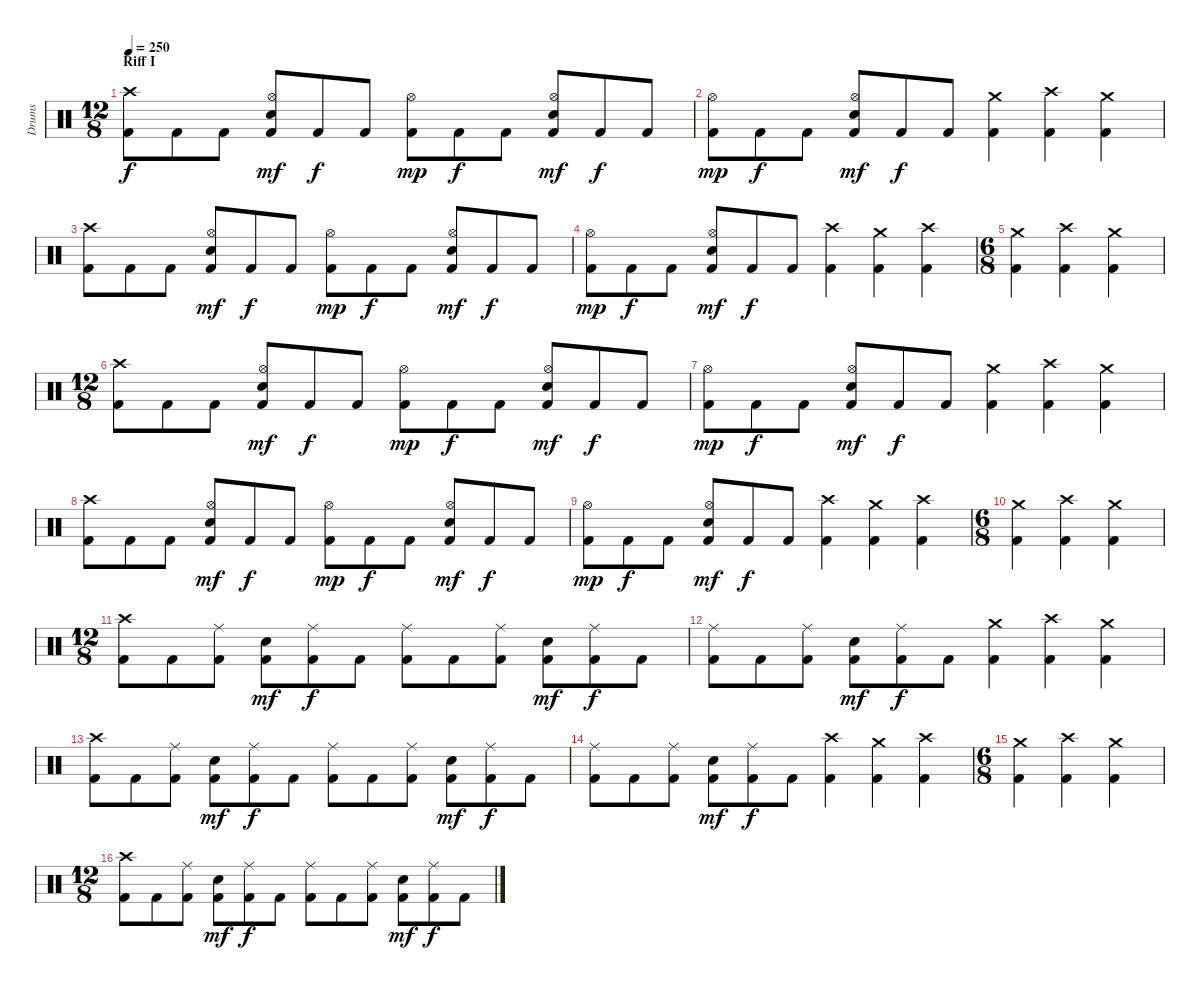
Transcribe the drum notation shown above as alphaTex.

\track ("Drums" "Drums") {instrument percussion}
\staff {score}
\articulation defaults
\ts (12 8)
\section ("" "Riff I")
\tempo 250
\clef neutral
\ks c
("Crash high (hit)" "Kick (hit) 2").8{dy f} "Kick (hit) 2".8 "Kick (hit) 2".8 ("Hi-Hat (open)" "Electric Snare (hit)" "Kick (hit) 2").8{dy mf} "Kick (hit) 2".8{dy f} "Kick (hit) 2".8 ("Hi-Hat (open)" "Kick (hit) 2").8{dy mp} "Kick (hit) 2".8{dy f} "Kick (hit) 2".8 ("Hi-Hat (open)" "Electric Snare (hit)" "Kick (hit) 2").8{dy mf} "Kick (hit) 2".8{dy f} "Kick (hit) 2".8 |
("Hi-Hat (open)" "Kick (hit) 2").8{dy mp} "Kick (hit) 2".8{dy f} "Kick (hit) 2".8 ("Hi-Hat (open)" "Electric Snare (hit)" "Kick (hit) 2").8{dy mf} "Kick (hit) 2".8{dy f} "Kick (hit) 2".8 ("Crash medium (hit)" "Kick (hit) 2").4 ("Crash high (hit)" "Kick (hit) 2").4 ("Crash medium (hit)" "Kick (hit) 2").4 |
("Crash high (hit)" "Kick (hit) 2").8 "Kick (hit) 2".8 "Kick (hit) 2".8 ("Hi-Hat (open)" "Electric Snare (hit)" "Kick (hit) 2").8{dy mf} "Kick (hit) 2".8{dy f} "Kick (hit) 2".8 ("Hi-Hat (open)" "Kick (hit) 2").8{dy mp} "Kick (hit) 2".8{dy f} "Kick (hit) 2".8 ("Hi-Hat (open)" "Electric Snare (hit)" "Kick (hit) 2").8{dy mf} "Kick (hit) 2".8{dy f} "Kick (hit) 2".8 |
("Hi-Hat (open)" "Kick (hit) 2").8{dy mp} "Kick (hit) 2".8{dy f} "Kick (hit) 2".8 ("Hi-Hat (open)" "Electric Snare (hit)" "Kick (hit) 2").8{dy mf} "Kick (hit) 2".8{dy f} "Kick (hit) 2".8 ("Crash high (hit)" "Kick (hit) 2").4 ("Crash medium (hit)" "Kick (hit) 2").4 ("Crash high (hit)" "Kick (hit) 2").4 |
\ts (6 8)
("Crash medium (hit)" "Kick (hit) 2").4 ("Crash high (hit)" "Kick (hit) 2").4 ("Crash medium (hit)" "Kick (hit) 2").4 |
\ts (12 8)
("Crash high (hit)" "Kick (hit) 2").8 "Kick (hit) 2".8 "Kick (hit) 2".8 ("Hi-Hat (open)" "Electric Snare (hit)" "Kick (hit) 2").8{dy mf} "Kick (hit) 2".8{dy f} "Kick (hit) 2".8 ("Hi-Hat (open)" "Kick (hit) 2").8{dy mp} "Kick (hit) 2".8{dy f} "Kick (hit) 2".8 ("Hi-Hat (open)" "Electric Snare (hit)" "Kick (hit) 2").8{dy mf} "Kick (hit) 2".8{dy f} "Kick (hit) 2".8 |
("Hi-Hat (open)" "Kick (hit) 2").8{dy mp} "Kick (hit) 2".8{dy f} "Kick (hit) 2".8 ("Hi-Hat (open)" "Electric Snare (hit)" "Kick (hit) 2").8{dy mf} "Kick (hit) 2".8{dy f} "Kick (hit) 2".8 ("Crash medium (hit)" "Kick (hit) 2").4 ("Crash high (hit)" "Kick (hit) 2").4 ("Crash medium (hit)" "Kick (hit) 2").4 |
("Crash high (hit)" "Kick (hit) 2").8 "Kick (hit) 2".8 "Kick (hit) 2".8 ("Hi-Hat (open)" "Electric Snare (hit)" "Kick (hit) 2").8{dy mf} "Kick (hit) 2".8{dy f} "Kick (hit) 2".8 ("Hi-Hat (open)" "Kick (hit) 2").8{dy mp} "Kick (hit) 2".8{dy f} "Kick (hit) 2".8 ("Hi-Hat (open)" "Electric Snare (hit)" "Kick (hit) 2").8{dy mf} "Kick (hit) 2".8{dy f} "Kick (hit) 2".8 |
("Hi-Hat (open)" "Kick (hit) 2").8{dy mp} "Kick (hit) 2".8{dy f} "Kick (hit) 2".8 ("Hi-Hat (open)" "Electric Snare (hit)" "Kick (hit) 2").8{dy mf} "Kick (hit) 2".8{dy f} "Kick (hit) 2".8 ("Crash high (hit)" "Kick (hit) 2").4 ("Crash medium (hit)" "Kick (hit) 2").4 ("Crash high (hit)" "Kick (hit) 2").4 |
\ts (6 8)
("Crash medium (hit)" "Kick (hit) 2").4 ("Crash high (hit)" "Kick (hit) 2").4 ("Crash medium (hit)" "Kick (hit) 2").4 |
\ts (12 8)
("Crash high (hit)" "Kick (hit) 2").8 "Kick (hit) 2".8 ("Ride (middle)" "Kick (hit) 2").8 ("Electric Snare (hit)" "Kick (hit) 2").8{dy mf} ("Ride (middle)" "Kick (hit) 2").8{dy f} "Kick (hit) 2".8 ("Ride (middle)" "Kick (hit) 2").8 "Kick (hit) 2".8 ("Ride (middle)" "Kick (hit) 2").8 ("Electric Snare (hit)" "Kick (hit) 2").8{dy mf} ("Ride (middle)" "Kick (hit) 2").8{dy f} "Kick (hit) 2".8 |
("Ride (middle)" "Kick (hit) 2").8 "Kick (hit) 2".8 ("Ride (middle)" "Kick (hit) 2").8 ("Electric Snare (hit)" "Kick (hit) 2").8{dy mf} ("Ride (middle)" "Kick (hit) 2").8{dy f} "Kick (hit) 2".8 ("Crash medium (hit)" "Kick (hit) 2").4 ("Crash high (hit)" "Kick (hit) 2").4 ("Crash medium (hit)" "Kick (hit) 2").4 |
("Crash high (hit)" "Kick (hit) 2").8 "Kick (hit) 2".8 ("Ride (middle)" "Kick (hit) 2").8 ("Electric Snare (hit)" "Kick (hit) 2").8{dy mf} ("Ride (middle)" "Kick (hit) 2").8{dy f} "Kick (hit) 2".8 ("Ride (middle)" "Kick (hit) 2").8 "Kick (hit) 2".8 ("Ride (middle)" "Kick (hit) 2").8 ("Electric Snare (hit)" "Kick (hit) 2").8{dy mf} ("Ride (middle)" "Kick (hit) 2").8{dy f} "Kick (hit) 2".8 |
("Ride (middle)" "Kick (hit) 2").8 "Kick (hit) 2".8 ("Ride (middle)" "Kick (hit) 2").8 ("Electric Snare (hit)" "Kick (hit) 2").8{dy mf} ("Ride (middle)" "Kick (hit) 2").8{dy f} "Kick (hit) 2".8 ("Crash high (hit)" "Kick (hit) 2").4 ("Crash medium (hit)" "Kick (hit) 2").4 ("Crash high (hit)" "Kick (hit) 2").4 |
\ts (6 8)
("Crash medium (hit)" "Kick (hit) 2").4 ("Crash high (hit)" "Kick (hit) 2").4 ("Crash medium (hit)" "Kick (hit) 2").4 |
\ts (12 8)
("Crash high (hit)" "Kick (hit) 2").8 "Kick (hit) 2".8 ("Ride (middle)" "Kick (hit) 2").8 ("Electric Snare (hit)" "Kick (hit) 2").8{dy mf} ("Ride (middle)" "Kick (hit) 2").8{dy f} "Kick (hit) 2".8 ("Ride (middle)" "Kick (hit) 2").8 "Kick (hit) 2".8 ("Ride (middle)" "Kick (hit) 2").8 ("Electric Snare (hit)" "Kick (hit) 2").8{dy mf} ("Ride (middle)" "Kick (hit) 2").8{dy f} "Kick (hit) 2".8
